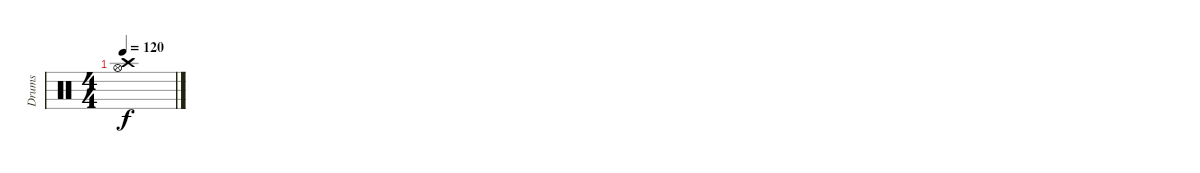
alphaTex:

\track ("Drums" "Drums") {instrument percussion}
\staff {score}
\articulation defaults
\ts (4 4)
\tempo 120
\clef neutral
\ks c
("Crash high (hit)" "Hi-Hat (open)").1{dy f}
